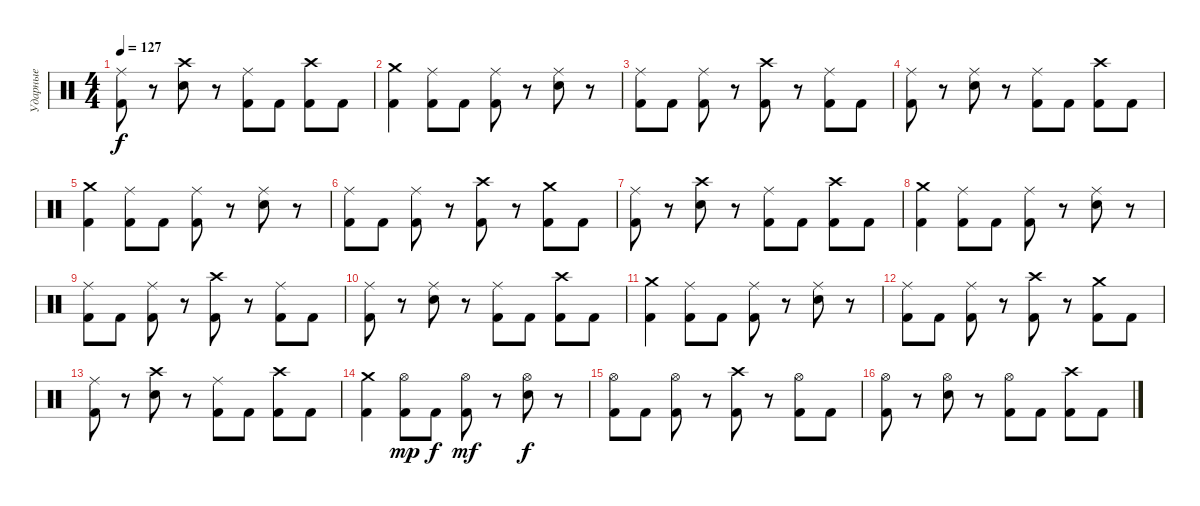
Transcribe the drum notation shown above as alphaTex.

\track ("Ударные" "Ударные") {instrument percussion}
\staff {score}
\articulation defaults
\ts (4 4)
\tempo 127
\clef neutral
\ks c
("Ride (middle)" "Kick (hit) 2").8{dy f} r.8 ("Crash high (hit)" "Electric Snare (hit)").8 r.8 ("Ride (middle)" "Kick (hit) 2").8 "Kick (hit) 2".8 ("Kick (hit) 2" "Crash high (hit)").8 "Kick (hit) 2".8 |
("Crash medium (hit)" "Kick (hit) 2").4 ("Ride (middle)" "Kick (hit) 2").8 "Kick (hit) 2".8 ("Ride (middle)" "Kick (hit) 2").8 r.8 ("Ride (middle)" "Electric Snare (hit)").8 r.8 |
("Ride (middle)" "Kick (hit) 2").8 "Kick (hit) 2".8 ("Ride (middle)" "Kick (hit) 2").8 r.8 ("Crash high (hit)" "Kick (hit) 2").8 r.8 ("Ride (middle)" "Kick (hit) 2").8 "Kick (hit) 2".8 |
("Ride (middle)" "Kick (hit) 2").8 r.8 ("Ride (middle)" "Electric Snare (hit)").8 r.8 ("Ride (middle)" "Kick (hit) 2").8 "Kick (hit) 2".8 ("Kick (hit) 2" "Crash high (hit)").8 "Kick (hit) 2".8 |
("Crash medium (hit)" "Kick (hit) 2").4 ("Ride (middle)" "Kick (hit) 2").8 "Kick (hit) 2".8 ("Ride (middle)" "Kick (hit) 2").8 r.8 ("Ride (middle)" "Electric Snare (hit)").8 r.8 |
("Ride (middle)" "Kick (hit) 2").8 "Kick (hit) 2".8 ("Ride (middle)" "Kick (hit) 2").8 r.8 ("Crash high (hit)" "Kick (hit) 2").8 r.8 ("Crash medium (hit)" "Kick (hit) 2").8 "Kick (hit) 2".8 |
("Ride (middle)" "Kick (hit) 2").8 r.8 ("Crash high (hit)" "Electric Snare (hit)").8 r.8 ("Ride (middle)" "Kick (hit) 2").8 "Kick (hit) 2".8 ("Kick (hit) 2" "Crash high (hit)").8 "Kick (hit) 2".8 |
("Crash medium (hit)" "Kick (hit) 2").4 ("Ride (middle)" "Kick (hit) 2").8 "Kick (hit) 2".8 ("Ride (middle)" "Kick (hit) 2").8 r.8 ("Ride (middle)" "Electric Snare (hit)").8 r.8 |
("Ride (middle)" "Kick (hit) 2").8 "Kick (hit) 2".8 ("Ride (middle)" "Kick (hit) 2").8 r.8 ("Crash high (hit)" "Kick (hit) 2").8 r.8 ("Ride (middle)" "Kick (hit) 2").8 "Kick (hit) 2".8 |
("Ride (middle)" "Kick (hit) 2").8 r.8 ("Ride (middle)" "Electric Snare (hit)").8 r.8 ("Ride (middle)" "Kick (hit) 2").8 "Kick (hit) 2".8 ("Kick (hit) 2" "Crash high (hit)").8 "Kick (hit) 2".8 |
("Crash medium (hit)" "Kick (hit) 2").4 ("Ride (middle)" "Kick (hit) 2").8 "Kick (hit) 2".8 ("Ride (middle)" "Kick (hit) 2").8 r.8 ("Ride (middle)" "Electric Snare (hit)").8 r.8 |
("Ride (middle)" "Kick (hit) 2").8 "Kick (hit) 2".8 ("Ride (middle)" "Kick (hit) 2").8 r.8 ("Crash high (hit)" "Kick (hit) 2").8 r.8 ("Crash medium (hit)" "Kick (hit) 2").8 "Kick (hit) 2".8 |
("Ride (middle)" "Kick (hit) 2").8 r.8 ("Crash high (hit)" "Electric Snare (hit)").8 r.8 ("Ride (middle)" "Kick (hit) 2").8 "Kick (hit) 2".8 ("Kick (hit) 2" "Crash high (hit)").8 "Kick (hit) 2".8 |
("Crash medium (hit)" "Kick (hit) 2").4 ("Hi-Hat (open)" "Kick (hit) 2").8{dy mp} "Kick (hit) 2".8{dy f} ("Hi-Hat (open)" "Kick (hit) 2").8{dy mf} r.8 ("Hi-Hat (open)" "Electric Snare (hit)").8{dy f} r.8 |
("Hi-Hat (open)" "Kick (hit) 2").8 "Kick (hit) 2".8 ("Hi-Hat (open)" "Kick (hit) 2").8 r.8 ("Crash high (hit)" "Kick (hit) 2").8 r.8 ("Hi-Hat (open)" "Kick (hit) 2").8 "Kick (hit) 2".8 |
("Hi-Hat (open)" "Kick (hit) 2").8 r.8 ("Hi-Hat (open)" "Electric Snare (hit)").8 r.8 ("Hi-Hat (open)" "Kick (hit) 2").8 "Kick (hit) 2".8 ("Kick (hit) 2" "Crash high (hit)").8 "Kick (hit) 2".8
